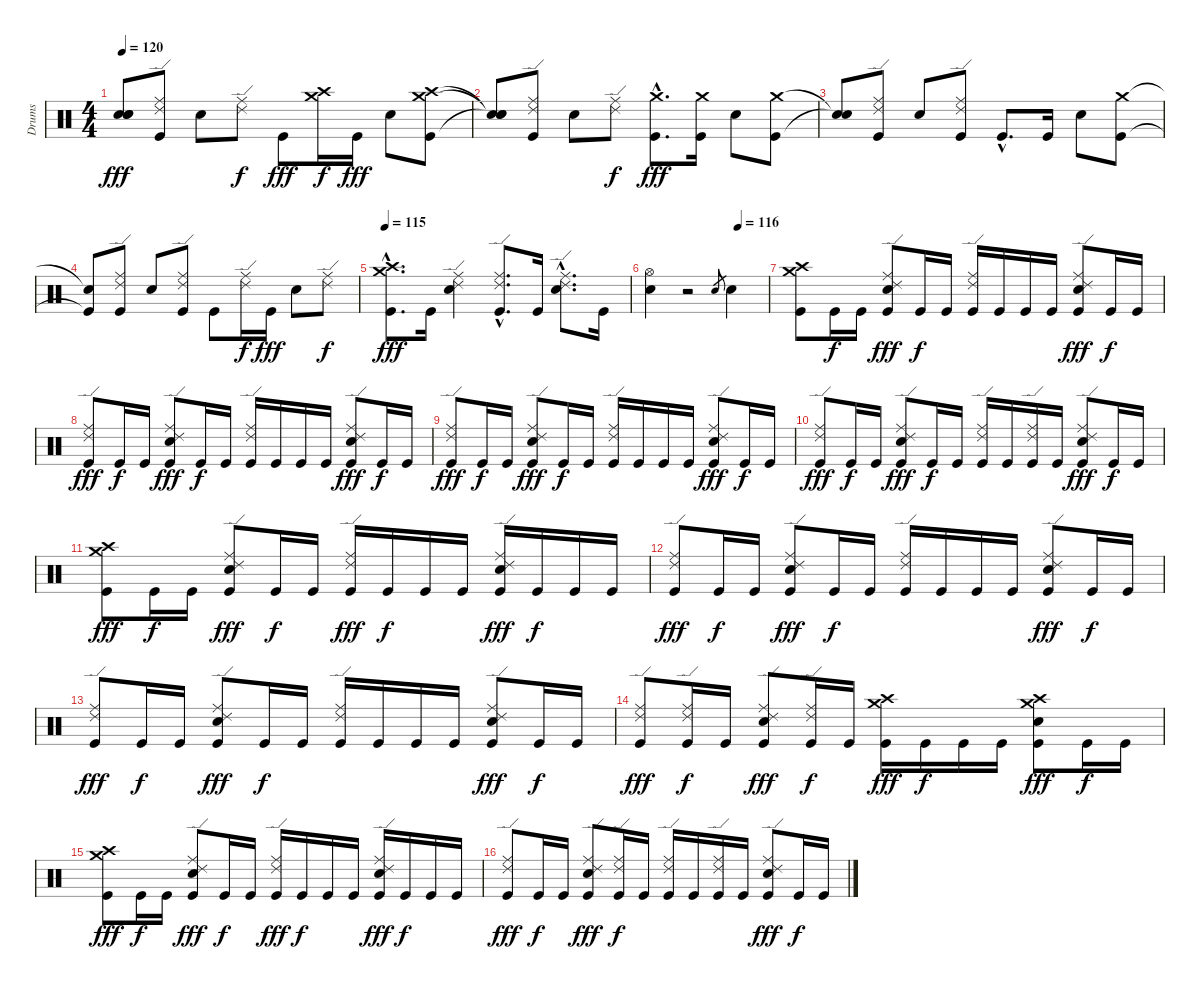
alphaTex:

\track ("Drums" "Drums") {instrument percussion}
\staff {score}
\articulation defaults
\ts (4 4)
\tempo 120
\clef neutral
\ks c
("Snare (hit)"{t} "Snare (hit)"{t} "Snare (hit)"{t}).8{dy fff} ("Ride (edge) 2" "Ride (middle)" "Kick (hit)").8 "Snare (hit) 2".8 ("Ride (edge) 2" "Ride (middle)").8{dy f} "Kick (hit)".8{dy fff} ("Crash high (hit)" "Crash medium (hit)").16{dy f} "Kick (hit)".16{dy fff} "Snare (hit) 2".8 ("Crash high (hit)" "Crash medium (hit)" "Kick (hit)").8 |
("Snare (hit)"{t} "Snare (hit)"{t} "Snare (hit)"{t}).8 ("Ride (edge) 2" "Ride (middle)" "Kick (hit)").8 "Snare (hit) 2".8 ("Ride (edge) 2" "Ride (middle)").8{dy f} ("Crash medium (hit)"{hac} "Kick (hit)"{hac}).8{d dy fff} ("Crash medium (hit)" "Kick (hit)").16 "Snare (hit) 2".8 ("Crash medium (hit)" "Kick (hit)").8 |
("Snare (hit)"{t} "Snare (hit)"{t}).8 ("Ride (edge) 2" "Ride (middle)" "Kick (hit)").8 "Snare (hit) 2".8 ("Ride (edge) 2" "Ride (middle)" "Kick (hit)").8 "Kick (hit)"{hac}.8{d} "Kick (hit)".16 "Snare (hit) 2".8 ("Crash medium (hit)" "Kick (hit)").8 |
("Snare (hit)"{t} "Kick (hit)"{t}).8 ("Ride (edge) 2" "Ride (middle)" "Kick (hit)").8 "Snare (hit) 2".8 ("Ride (edge) 2" "Ride (middle)" "Kick (hit)").8 "Kick (hit)".8 ("Ride (edge) 2" "Ride (middle)").16{dy f} "Kick (hit)".16{dy fff} "Snare (hit) 2".8 ("Ride (edge) 2" "Ride (middle)").8{dy f} |
\tempo 115
("Crash high (hit)"{hac} "Crash medium (hit)"{hac} "Kick (hit)"{hac}).8{d dy fff} "Kick (hit)".16 ("Ride (edge) 2" "Ride (middle)" "Snare (hit) 2").4 ("Ride (edge) 2"{hac} "Ride (middle)"{hac} "Kick (hit)"{hac}).8{d} "Kick (hit)".16 ("Ride (edge) 2"{hac} "Ride (middle)"{hac} "Snare (hit) 2"{hac}).8{d} "Kick (hit)".16 |
\tempo (116 0.75)
("Hi-Hat (open)" "Snare (hit) 2").4 r.2 "Snare (hit) 2".8{gr} "Snare (hit) 2".4 |
("Crash high (hit)" "Crash medium (hit)" "Kick (hit)").8 "Kick (hit)".16{dy f} "Kick (hit)".16 ("Ride (edge) 2" "Ride (middle)" "Snare (hit) 2" "Kick (hit)").8{dy fff} "Kick (hit)".16{dy f} "Kick (hit)".16 ("Ride (edge) 2" "Ride (middle)" "Kick (hit)").16 "Kick (hit)".16 "Kick (hit)".16 "Kick (hit)".16 ("Ride (edge) 2" "Ride (middle)" "Snare (hit) 2" "Kick (hit)").8{dy fff} "Kick (hit)".16{dy f} "Kick (hit)".16 |
("Ride (edge) 2" "Ride (middle)" "Kick (hit)").8{dy fff} "Kick (hit)".16{dy f} "Kick (hit)".16 ("Ride (edge) 2" "Ride (middle)" "Snare (hit) 2" "Kick (hit)").8{dy fff} "Kick (hit)".16{dy f} "Kick (hit)".16 ("Ride (edge) 2" "Ride (middle)" "Kick (hit)").16 "Kick (hit)".16 "Kick (hit)".16 "Kick (hit)".16 ("Ride (edge) 2" "Ride (middle)" "Snare (hit) 2" "Kick (hit)").8{dy fff} "Kick (hit)".16{dy f} "Kick (hit)".16 |
("Ride (edge) 2" "Ride (middle)" "Kick (hit)").8{dy fff} "Kick (hit)".16{dy f} "Kick (hit)".16 ("Ride (edge) 2" "Ride (middle)" "Snare (hit) 2" "Kick (hit)").8{dy fff} "Kick (hit)".16{dy f} "Kick (hit)".16 ("Ride (edge) 2" "Ride (middle)" "Kick (hit)").16 "Kick (hit)".16 "Kick (hit)".16 "Kick (hit)".16 ("Ride (edge) 2" "Ride (middle)" "Snare (hit) 2" "Kick (hit)").8{dy fff} "Kick (hit)".16{dy f} "Kick (hit)".16 |
("Ride (edge) 2" "Ride (middle)" "Kick (hit)").8{dy fff} "Kick (hit)".16{dy f} "Kick (hit)".16 ("Ride (edge) 2" "Ride (middle)" "Snare (hit) 2" "Kick (hit)").8{dy fff} "Kick (hit)".16{dy f} "Kick (hit)".16 ("Ride (edge) 2" "Ride (middle)" "Kick (hit)").16 "Kick (hit)".16 ("Ride (edge) 2" "Ride (middle)" "Kick (hit)").16 "Kick (hit)".16 ("Ride (edge) 2" "Ride (middle)" "Snare (hit) 2" "Kick (hit)").8{dy fff} "Kick (hit)".16{dy f} "Kick (hit)".16 |
("Crash high (hit)" "Crash medium (hit)" "Kick (hit)").8{dy fff} "Kick (hit)".16{dy f} "Kick (hit)".16 ("Ride (edge) 2" "Ride (middle)" "Snare (hit) 2" "Kick (hit)").8{dy fff} "Kick (hit)".16{dy f} "Kick (hit)".16 ("Ride (edge) 2" "Ride (middle)" "Kick (hit)").16{dy fff} "Kick (hit)".16{dy f} "Kick (hit)".16 "Kick (hit)".16 ("Ride (edge) 2" "Ride (middle)" "Snare (hit) 2" "Kick (hit)").16{dy fff} "Kick (hit)".16{dy f} "Kick (hit)".16 "Kick (hit)".16 |
("Ride (edge) 2" "Ride (middle)" "Kick (hit)").8{dy fff} "Kick (hit)".16{dy f} "Kick (hit)".16 ("Ride (edge) 2" "Ride (middle)" "Snare (hit) 2" "Kick (hit)").8{dy fff} "Kick (hit)".16{dy f} "Kick (hit)".16 ("Ride (edge) 2" "Ride (middle)" "Kick (hit)").16 "Kick (hit)".16 "Kick (hit)".16 "Kick (hit)".16 ("Ride (edge) 2" "Ride (middle)" "Snare (hit) 2" "Kick (hit)").8{dy fff} "Kick (hit)".16{dy f} "Kick (hit)".16 |
("Ride (edge) 2" "Ride (middle)" "Kick (hit)").8{dy fff} "Kick (hit)".16{dy f} "Kick (hit)".16 ("Ride (edge) 2" "Ride (middle)" "Snare (hit) 2" "Kick (hit)").8{dy fff} "Kick (hit)".16{dy f} "Kick (hit)".16 ("Ride (edge) 2" "Ride (middle)" "Kick (hit)").16 "Kick (hit)".16 "Kick (hit)".16 "Kick (hit)".16 ("Ride (edge) 2" "Ride (middle)" "Snare (hit) 2" "Kick (hit)").8{dy fff} "Kick (hit)".16{dy f} "Kick (hit)".16 |
("Ride (edge) 2" "Ride (middle)" "Kick (hit)").8{dy fff} ("Ride (edge) 2" "Ride (middle)" "Kick (hit)").16{dy f} "Kick (hit)".16 ("Ride (edge) 2" "Ride (middle)" "Snare (hit) 2" "Kick (hit)").8{dy fff} ("Ride (edge) 2" "Ride (middle)" "Kick (hit)").16{dy f} "Kick (hit)".16 ("Crash high (hit)" "Crash medium (hit)" "Kick (hit)").16{dy fff} "Kick (hit)".16{dy f} "Kick (hit)".16 "Kick (hit)".16 ("Crash high (hit)" "Crash medium (hit)" "Snare (hit) 2" "Kick (hit)").8{dy fff} "Kick (hit)".16{dy f} "Kick (hit)".16 |
("Crash high (hit)" "Crash medium (hit)" "Kick (hit)").8{dy fff} "Kick (hit)".16{dy f} "Kick (hit)".16 ("Ride (edge) 2" "Ride (middle)" "Snare (hit) 2" "Kick (hit)").8{dy fff} "Kick (hit)".16{dy f} "Kick (hit)".16 ("Ride (edge) 2" "Ride (middle)" "Kick (hit)").16{dy fff} "Kick (hit)".16{dy f} "Kick (hit)".16 "Kick (hit)".16 ("Ride (edge) 2" "Ride (middle)" "Snare (hit) 2" "Kick (hit)").16{dy fff} "Kick (hit)".16{dy f} "Kick (hit)".16 "Kick (hit)".16 |
("Ride (edge) 2" "Ride (middle)" "Kick (hit)").8{dy fff} "Kick (hit)".16{dy f} "Kick (hit)".16 ("Ride (edge) 2" "Ride (middle)" "Snare (hit) 2" "Kick (hit)").8{dy fff} ("Ride (edge) 2" "Ride (middle)" "Kick (hit)").16{dy f} "Kick (hit)".16 ("Ride (edge) 2" "Ride (middle)" "Kick (hit)").16 "Kick (hit)".16 ("Ride (edge) 2" "Ride (middle)" "Kick (hit)").16 "Kick (hit)".16 ("Ride (edge) 2" "Ride (middle)" "Snare (hit) 2" "Kick (hit)").8{dy fff} "Kick (hit)".16{dy f} "Kick (hit)".16
